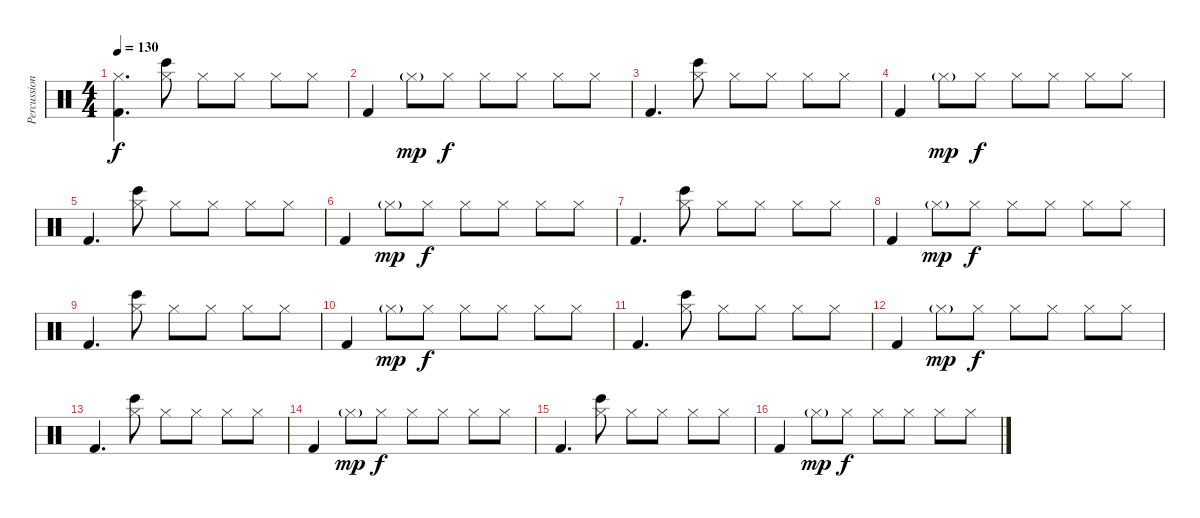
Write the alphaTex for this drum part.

\track ("Percussion" "Percussion") {instrument percussion}
\staff {score}
\articulation defaults
\ts (4 4)
\tempo 130
\clef neutral
\ks c
("Hi-Hat (closed)" "Kick (hit) 2").4{d dy f} ("Hi-Hat (closed)" "Bongo High (hit)").8 "Hi-Hat (closed)".8 "Hi-Hat (closed)".8 "Hi-Hat (closed)".8 "Hi-Hat (closed)".8 |
"Kick (hit) 2".4 "Hi-Hat (closed)"{g}.8{dy mp} "Hi-Hat (closed)".8{dy f} "Hi-Hat (closed)".8 "Hi-Hat (closed)".8 "Hi-Hat (closed)".8 "Hi-Hat (closed)".8 |
"Kick (hit) 2".4{d} ("Hi-Hat (closed)" "Bongo High (hit)").8 "Hi-Hat (closed)".8 "Hi-Hat (closed)".8 "Hi-Hat (closed)".8 "Hi-Hat (closed)".8 |
"Kick (hit) 2".4 "Hi-Hat (closed)"{g}.8{dy mp} "Hi-Hat (closed)".8{dy f} "Hi-Hat (closed)".8 "Hi-Hat (closed)".8 "Hi-Hat (closed)".8 "Hi-Hat (closed)".8 |
"Kick (hit) 2".4{d} ("Hi-Hat (closed)" "Bongo High (hit)").8 "Hi-Hat (closed)".8 "Hi-Hat (closed)".8 "Hi-Hat (closed)".8 "Hi-Hat (closed)".8 |
"Kick (hit) 2".4 "Hi-Hat (closed)"{g}.8{dy mp} "Hi-Hat (closed)".8{dy f} "Hi-Hat (closed)".8 "Hi-Hat (closed)".8 "Hi-Hat (closed)".8 "Hi-Hat (closed)".8 |
"Kick (hit) 2".4{d} ("Hi-Hat (closed)" "Bongo High (hit)").8 "Hi-Hat (closed)".8 "Hi-Hat (closed)".8 "Hi-Hat (closed)".8 "Hi-Hat (closed)".8 |
"Kick (hit) 2".4 "Hi-Hat (closed)"{g}.8{dy mp} "Hi-Hat (closed)".8{dy f} "Hi-Hat (closed)".8 "Hi-Hat (closed)".8 "Hi-Hat (closed)".8 "Hi-Hat (closed)".8 |
"Kick (hit) 2".4{d} ("Hi-Hat (closed)" "Bongo High (hit)").8 "Hi-Hat (closed)".8 "Hi-Hat (closed)".8 "Hi-Hat (closed)".8 "Hi-Hat (closed)".8 |
"Kick (hit) 2".4 "Hi-Hat (closed)"{g}.8{dy mp} "Hi-Hat (closed)".8{dy f} "Hi-Hat (closed)".8 "Hi-Hat (closed)".8 "Hi-Hat (closed)".8 "Hi-Hat (closed)".8 |
"Kick (hit) 2".4{d} ("Hi-Hat (closed)" "Bongo High (hit)").8 "Hi-Hat (closed)".8 "Hi-Hat (closed)".8 "Hi-Hat (closed)".8 "Hi-Hat (closed)".8 |
"Kick (hit) 2".4 "Hi-Hat (closed)"{g}.8{dy mp} "Hi-Hat (closed)".8{dy f} "Hi-Hat (closed)".8 "Hi-Hat (closed)".8 "Hi-Hat (closed)".8 "Hi-Hat (closed)".8 |
"Kick (hit) 2".4{d} ("Hi-Hat (closed)" "Bongo High (hit)").8 "Hi-Hat (closed)".8 "Hi-Hat (closed)".8 "Hi-Hat (closed)".8 "Hi-Hat (closed)".8 |
"Kick (hit) 2".4 "Hi-Hat (closed)"{g}.8{dy mp} "Hi-Hat (closed)".8{dy f} "Hi-Hat (closed)".8 "Hi-Hat (closed)".8 "Hi-Hat (closed)".8 "Hi-Hat (closed)".8 |
"Kick (hit) 2".4{d} ("Hi-Hat (closed)" "Bongo High (hit)").8 "Hi-Hat (closed)".8 "Hi-Hat (closed)".8 "Hi-Hat (closed)".8 "Hi-Hat (closed)".8 |
"Kick (hit) 2".4 "Hi-Hat (closed)"{g}.8{dy mp} "Hi-Hat (closed)".8{dy f} "Hi-Hat (closed)".8 "Hi-Hat (closed)".8 "Hi-Hat (closed)".8 "Hi-Hat (closed)".8
